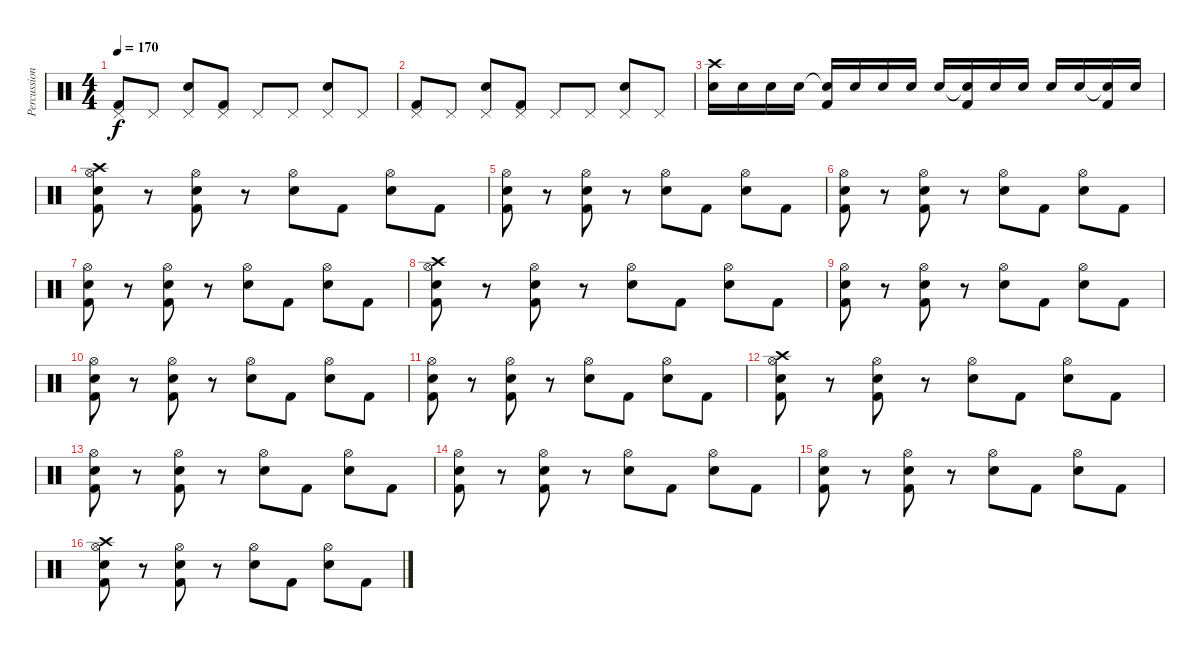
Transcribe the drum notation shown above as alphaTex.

\track ("Percussion" "Percussion") {instrument percussion}
\staff {score}
\articulation defaults
\ts (4 4)
\tempo 170
\clef neutral
\ks c
("Pedal Hi-Hat (hit)" "Kick (hit) 2").8{dy f} "Pedal Hi-Hat (hit)".8 ("Pedal Hi-Hat (hit)" "Snare (hit) 2").8 ("Pedal Hi-Hat (hit)" "Kick (hit) 2").8 "Pedal Hi-Hat (hit)".8 "Pedal Hi-Hat (hit)".8 ("Pedal Hi-Hat (hit)" "Snare (hit) 2").8 "Pedal Hi-Hat (hit)".8 |
("Pedal Hi-Hat (hit)" "Kick (hit) 2").8 "Pedal Hi-Hat (hit)".8 ("Pedal Hi-Hat (hit)" "Snare (hit) 2").8 ("Pedal Hi-Hat (hit)" "Kick (hit) 2").8 "Pedal Hi-Hat (hit)".8 "Pedal Hi-Hat (hit)".8 ("Pedal Hi-Hat (hit)" "Snare (hit) 2").8 "Pedal Hi-Hat (hit)".8 |
("Crash high (hit)" "Snare (hit) 2").16 "Snare (hit) 2".16 "Snare (hit) 2".16 "Snare (hit) 2".16 ("Snare (hit)"{t} "Kick (hit) 2").16 "Snare (hit) 2".16 "Snare (hit) 2".16 "Snare (hit) 2".16 "Snare (hit) 2".16 ("Snare (hit)"{t} "Kick (hit) 2").16 "Snare (hit) 2".16 "Snare (hit) 2".16 "Snare (hit) 2".16 "Snare (hit) 2".16 ("Snare (hit)"{t} "Kick (hit) 2").16 "Snare (hit) 2".16 |
("Crash high (hit)" "Hi-Hat (open)" "Snare (hit) 2" "Kick (hit) 2").8 r.8 ("Hi-Hat (open)" "Snare (hit) 2" "Kick (hit) 2").8 r.8 ("Hi-Hat (open)" "Snare (hit) 2").8 "Kick (hit) 2".8 ("Hi-Hat (open)" "Snare (hit) 2").8 "Kick (hit) 2".8 |
("Hi-Hat (open)" "Snare (hit) 2" "Kick (hit) 2").8 r.8 ("Hi-Hat (open)" "Snare (hit) 2" "Kick (hit) 2").8 r.8 ("Hi-Hat (open)" "Snare (hit) 2").8 "Kick (hit) 2".8 ("Hi-Hat (open)" "Snare (hit) 2").8 "Kick (hit) 2".8 |
("Hi-Hat (open)" "Snare (hit) 2" "Kick (hit) 2").8 r.8 ("Hi-Hat (open)" "Snare (hit) 2" "Kick (hit) 2").8 r.8 ("Hi-Hat (open)" "Snare (hit) 2").8 "Kick (hit) 2".8 ("Hi-Hat (open)" "Snare (hit) 2").8 "Kick (hit) 2".8 |
("Hi-Hat (open)" "Snare (hit) 2" "Kick (hit) 2").8 r.8 ("Hi-Hat (open)" "Snare (hit) 2" "Kick (hit) 2").8 r.8 ("Hi-Hat (open)" "Snare (hit) 2").8 "Kick (hit) 2".8 ("Hi-Hat (open)" "Snare (hit) 2").8 "Kick (hit) 2".8 |
("Crash high (hit)" "Hi-Hat (open)" "Snare (hit) 2" "Kick (hit) 2").8 r.8 ("Hi-Hat (open)" "Snare (hit) 2" "Kick (hit) 2").8 r.8 ("Hi-Hat (open)" "Snare (hit) 2").8 "Kick (hit) 2".8 ("Hi-Hat (open)" "Snare (hit) 2").8 "Kick (hit) 2".8 |
("Hi-Hat (open)" "Snare (hit) 2" "Kick (hit) 2").8 r.8 ("Hi-Hat (open)" "Snare (hit) 2" "Kick (hit) 2").8 r.8 ("Hi-Hat (open)" "Snare (hit) 2").8 "Kick (hit) 2".8 ("Hi-Hat (open)" "Snare (hit) 2").8 "Kick (hit) 2".8 |
("Hi-Hat (open)" "Snare (hit) 2" "Kick (hit) 2").8 r.8 ("Hi-Hat (open)" "Snare (hit) 2" "Kick (hit) 2").8 r.8 ("Hi-Hat (open)" "Snare (hit) 2").8 "Kick (hit) 2".8 ("Hi-Hat (open)" "Snare (hit) 2").8 "Kick (hit) 2".8 |
("Hi-Hat (open)" "Snare (hit) 2" "Kick (hit) 2").8 r.8 ("Hi-Hat (open)" "Snare (hit) 2" "Kick (hit) 2").8 r.8 ("Hi-Hat (open)" "Snare (hit) 2").8 "Kick (hit) 2".8 ("Hi-Hat (open)" "Snare (hit) 2").8 "Kick (hit) 2".8 |
("Crash high (hit)" "Hi-Hat (open)" "Snare (hit) 2" "Kick (hit) 2").8 r.8 ("Hi-Hat (open)" "Snare (hit) 2" "Kick (hit) 2").8 r.8 ("Hi-Hat (open)" "Snare (hit) 2").8 "Kick (hit) 2".8 ("Hi-Hat (open)" "Snare (hit) 2").8 "Kick (hit) 2".8 |
("Hi-Hat (open)" "Snare (hit) 2" "Kick (hit) 2").8 r.8 ("Hi-Hat (open)" "Snare (hit) 2" "Kick (hit) 2").8 r.8 ("Hi-Hat (open)" "Snare (hit) 2").8 "Kick (hit) 2".8 ("Hi-Hat (open)" "Snare (hit) 2").8 "Kick (hit) 2".8 |
("Hi-Hat (open)" "Snare (hit) 2" "Kick (hit) 2").8 r.8 ("Hi-Hat (open)" "Snare (hit) 2" "Kick (hit) 2").8 r.8 ("Hi-Hat (open)" "Snare (hit) 2").8 "Kick (hit) 2".8 ("Hi-Hat (open)" "Snare (hit) 2").8 "Kick (hit) 2".8 |
("Hi-Hat (open)" "Snare (hit) 2" "Kick (hit) 2").8 r.8 ("Hi-Hat (open)" "Snare (hit) 2" "Kick (hit) 2").8 r.8 ("Hi-Hat (open)" "Snare (hit) 2").8 "Kick (hit) 2".8 ("Hi-Hat (open)" "Snare (hit) 2").8 "Kick (hit) 2".8 |
("Crash high (hit)" "Hi-Hat (open)" "Snare (hit) 2" "Kick (hit) 2").8 r.8 ("Hi-Hat (open)" "Snare (hit) 2" "Kick (hit) 2").8 r.8 ("Hi-Hat (open)" "Snare (hit) 2").8 "Kick (hit) 2".8 ("Hi-Hat (open)" "Snare (hit) 2").8 "Kick (hit) 2".8
